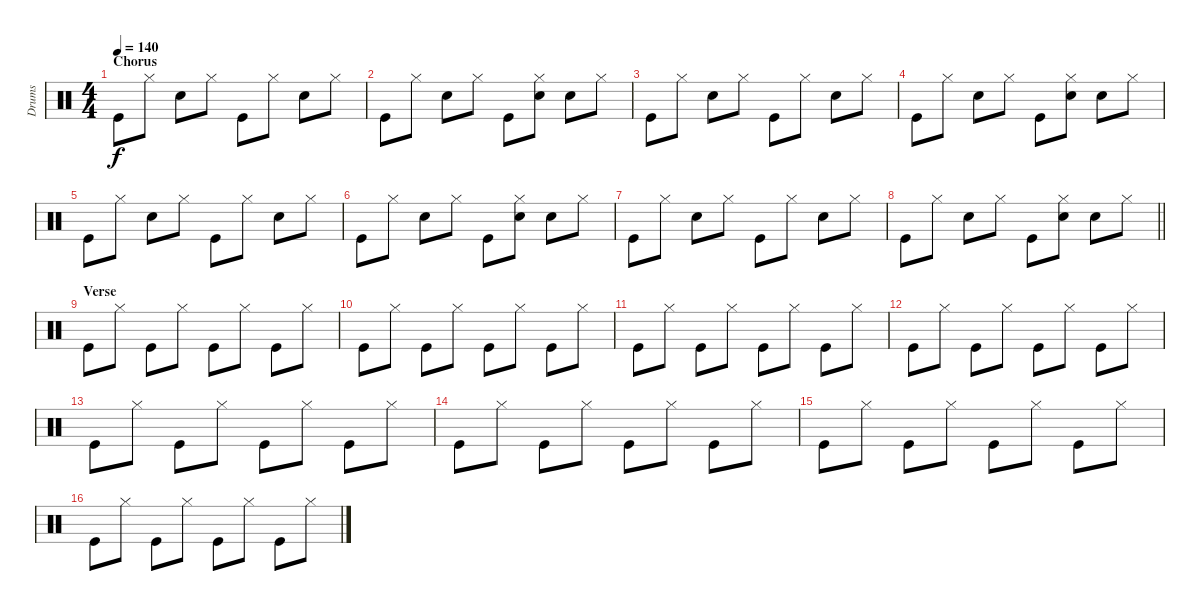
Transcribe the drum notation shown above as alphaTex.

\track ("Drums" "Drums") {instrument percussion}
\staff {score}
\articulation defaults
\ts (4 4)
\section ("" "Chorus")
\tempo 140
\clef neutral
\ks c "Kick (hit)".8{dy f} "Hi-Hat (closed)".8 "Hand Clap (hit)".8 "Hi-Hat (closed)".8 "Kick (hit)".8 "Hi-Hat (closed)".8 "Hand Clap (hit)".8 "Hi-Hat (closed)".8
|
"Kick (hit)".8 "Hi-Hat (closed)".8 "Hand Clap (hit)".8 "Hi-Hat (closed)".8 "Kick (hit)".8 ("Hi-Hat (closed)" "Hand Clap (hit)").8 "Hand Clap (hit)".8 "Hi-Hat (closed)".8 |
"Kick (hit)".8 "Hi-Hat (closed)".8 "Hand Clap (hit)".8 "Hi-Hat (closed)".8 "Kick (hit)".8 "Hi-Hat (closed)".8 "Hand Clap (hit)".8 "Hi-Hat (closed)".8 |
"Kick (hit)".8 "Hi-Hat (closed)".8 "Hand Clap (hit)".8 "Hi-Hat (closed)".8 "Kick (hit)".8 ("Hi-Hat (closed)" "Hand Clap (hit)").8 "Hand Clap (hit)".8 "Hi-Hat (closed)".8 |
"Kick (hit)".8 "Hi-Hat (closed)".8 "Hand Clap (hit)".8 "Hi-Hat (closed)".8 "Kick (hit)".8 "Hi-Hat (closed)".8 "Hand Clap (hit)".8 "Hi-Hat (closed)".8 |
"Kick (hit)".8 "Hi-Hat (closed)".8 "Hand Clap (hit)".8 "Hi-Hat (closed)".8 "Kick (hit)".8 ("Hi-Hat (closed)" "Hand Clap (hit)").8 "Hand Clap (hit)".8 "Hi-Hat (closed)".8 |
"Kick (hit)".8 "Hi-Hat (closed)".8 "Hand Clap (hit)".8 "Hi-Hat (closed)".8 "Kick (hit)".8 "Hi-Hat (closed)".8 "Hand Clap (hit)".8 "Hi-Hat (closed)".8 |
\barLineRight lightlight "Kick (hit)".8 "Hi-Hat (closed)".8 "Hand Clap (hit)".8 "Hi-Hat (closed)".8 "Kick (hit)".8
("Hi-Hat (closed)" "Hand Clap (hit)").8 "Hand Clap (hit)".8 "Hi-Hat (closed)".8 |
\section ("" "Verse")
"Kick (hit)".8 "Hi-Hat (closed)".8 "Kick (hit)".8 "Hi-Hat (closed)".8 "Kick (hit)".8 "Hi-Hat (closed)".8 "Kick (hit)".8 "Hi-Hat (closed)".8 |
"Kick (hit)".8 "Hi-Hat (closed)".8 "Kick (hit)".8 "Hi-Hat (closed)".8 "Kick (hit)".8 "Hi-Hat (closed)".8 "Kick (hit)".8 "Hi-Hat (closed)".8 |
"Kick (hit)".8 "Hi-Hat (closed)".8 "Kick (hit)".8 "Hi-Hat (closed)".8 "Kick (hit)".8 "Hi-Hat (closed)".8 "Kick (hit)".8 "Hi-Hat (closed)".8 |
"Kick (hit)".8 "Hi-Hat (closed)".8 "Kick (hit)".8 "Hi-Hat (closed)".8 "Kick (hit)".8 "Hi-Hat (closed)".8 "Kick (hit)".8 "Hi-Hat (closed)".8 |
"Kick (hit)".8 "Hi-Hat (closed)".8 "Kick (hit)".8 "Hi-Hat (closed)".8 "Kick (hit)".8 "Hi-Hat (closed)".8 "Kick (hit)".8 "Hi-Hat (closed)".8 |
"Kick (hit)".8 "Hi-Hat (closed)".8 "Kick (hit)".8 "Hi-Hat (closed)".8 "Kick (hit)".8 "Hi-Hat (closed)".8 "Kick (hit)".8 "Hi-Hat (closed)".8 |
"Kick (hit)".8 "Hi-Hat (closed)".8 "Kick (hit)".8 "Hi-Hat (closed)".8 "Kick (hit)".8 "Hi-Hat (closed)".8 "Kick (hit)".8 "Hi-Hat (closed)".8 |
"Kick (hit)".8 "Hi-Hat (closed)".8 "Kick (hit)".8 "Hi-Hat (closed)".8 "Kick (hit)".8 "Hi-Hat (closed)".8 "Kick (hit)".8 "Hi-Hat (closed)".8
